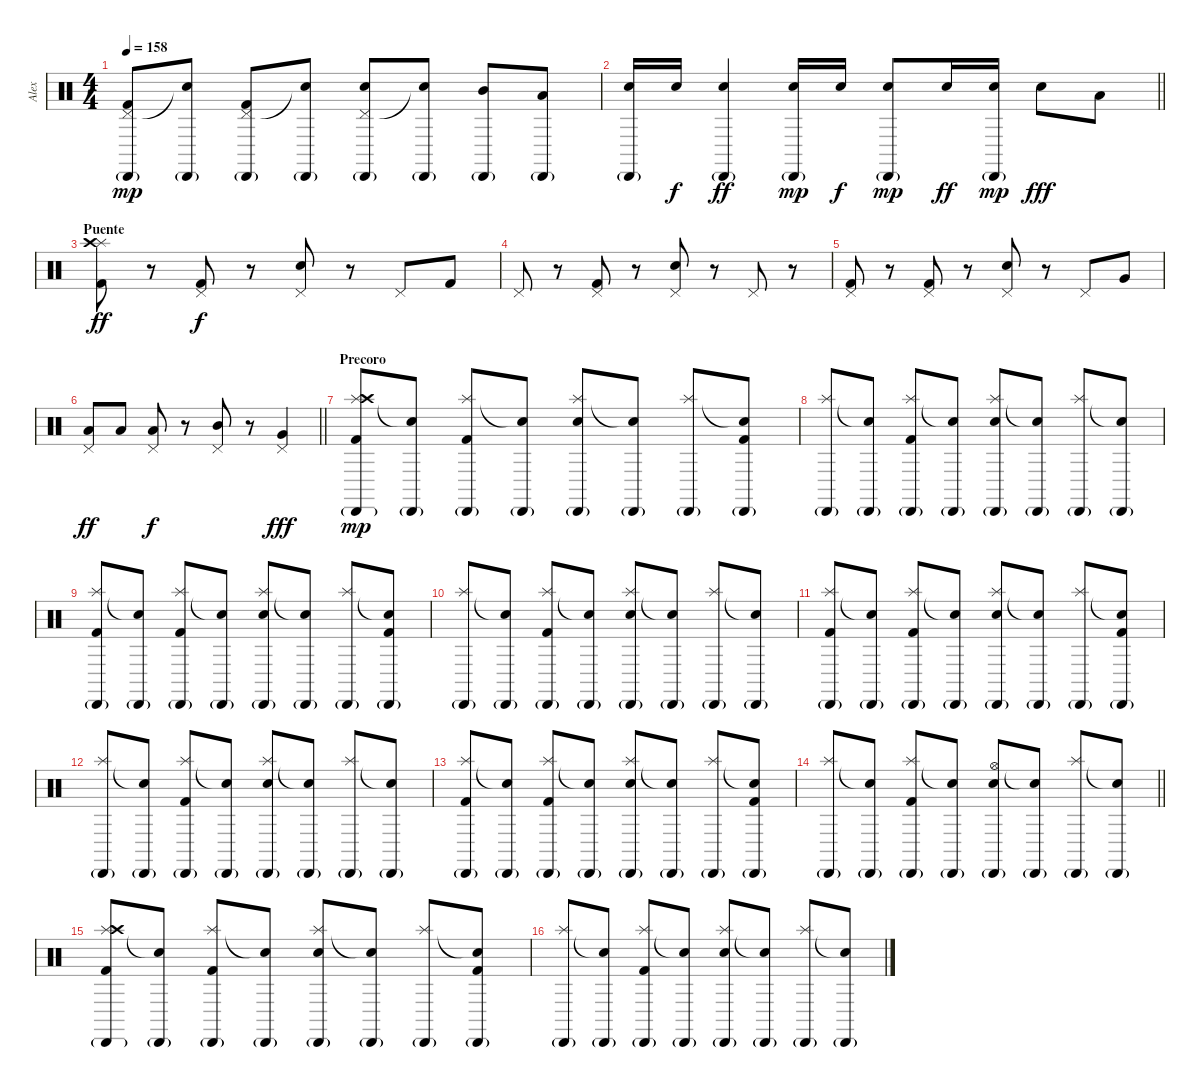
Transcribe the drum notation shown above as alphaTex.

\track ("Alex" "Alex") {instrument percussion}
\staff {score}
\articulation defaults
\ts (4 4)
\tempo 158
\clef neutral
\ks c
("Pedal Hi-Hat (hit)" "Kick (hit) 2" "Cabasa (hit)"{g}).8{dy mp} ("Snare (hit)"{t} "Cabasa (hit)"{g}).8 ("Pedal Hi-Hat (hit)" "Kick (hit) 2" "Cabasa (hit)"{g}).8 ("Snare (hit)"{t} "Cabasa (hit)"{g}).8 ("Pedal Hi-Hat (hit)" "Electric Snare (hit)" "Cabasa (hit)"{g}).8 ("Snare (hit)"{t} "Cabasa (hit)"{g}).8 ("Mid Tom (hit)" "Cabasa (hit)"{g}).8 ("Low Tom (hit)" "Cabasa (hit)"{g}).8 |
\barLineRight lightlight
("Snare (hit) 2" "Cabasa (hit)"{g}).16 "Snare (hit) 2".16{dy f} ("Snare (hit) 2" "Cabasa (hit)"{g}).4{dy ff} ("Snare (hit) 2" "Cabasa (hit)"{g}).16{dy mp} "Snare (hit) 2".16{dy f} ("Snare (hit) 2" "Cabasa (hit)"{g}).8{dy mp} "Snare (hit) 2".16{dy ff} ("Snare (hit) 2" "Cabasa (hit)"{g}).16{dy mp} "Snare (hit) 2".8{dy fff} "Low Tom (hit)".8 |
\section ("" "Puente")
("Splash (hit)" "Kick (hit) 2" "Crash high (hit)").8{dy ff} r.8 ("Pedal Hi-Hat (hit)" "Kick (hit) 2").8{dy f} r.8 ("Pedal Hi-Hat (hit)" "Electric Snare (hit)").8 r.8 "Pedal Hi-Hat (hit)".8 "Kick (hit) 2".8 |
"Pedal Hi-Hat (hit)".8 r.8 ("Pedal Hi-Hat (hit)" "Kick (hit) 2").8 r.8 ("Pedal Hi-Hat (hit)" "Electric Snare (hit)").8 r.8 "Pedal Hi-Hat (hit)".8 r.8 |
("Pedal Hi-Hat (hit)" "Kick (hit) 2").8 r.8 ("Pedal Hi-Hat (hit)" "Kick (hit) 2").8 r.8 ("Pedal Hi-Hat (hit)" "Electric Snare (hit)").8 r.8 "Pedal Hi-Hat (hit)".8 "Very Low Tom (hit)".8 |
\barLineRight lightlight
("Pedal Hi-Hat (hit)" "Low Tom (hit)").8{dy ff} "Low Tom (hit)".8 ("Pedal Hi-Hat (hit)" "Low Tom (hit)").8{dy f} r.8 ("Pedal Hi-Hat (hit)" "Mid Tom (hit)").8 r.8 ("Pedal Hi-Hat (hit)" "Very Low Tom (hit)").4{dy fff} |
\section ("" "Precoro")
("Splash (hit)" "Kick (hit) 2" "Crash high (hit)" "Cabasa (hit)"{g}).8{dy mp} ("Snare (hit)"{t} "Cabasa (hit)"{g}).8 ("Splash (hit)" "Kick (hit) 2" "Cabasa (hit)"{g}).8 ("Snare (hit)"{t} "Cabasa (hit)"{g}).8 ("Splash (hit)" "Electric Snare (hit)" "Cabasa (hit)"{g}).8 ("Snare (hit)"{t} "Cabasa (hit)"{g}).8 ("Splash (hit)" "Cabasa (hit)"{g}).8 ("Snare (hit)"{t} "Kick (hit) 2" "Cabasa (hit)"{g}).8 |
("Splash (hit)" "Cabasa (hit)"{g}).8 ("Snare (hit)"{t} "Cabasa (hit)"{g}).8 ("Splash (hit)" "Kick (hit) 2" "Cabasa (hit)"{g}).8 ("Snare (hit)"{t} "Cabasa (hit)"{g}).8 ("Splash (hit)" "Electric Snare (hit)" "Cabasa (hit)"{g}).8 ("Snare (hit)"{t} "Cabasa (hit)"{g}).8 ("Splash (hit)" "Cabasa (hit)"{g}).8 ("Snare (hit)"{t} "Cabasa (hit)"{g}).8 |
("Splash (hit)" "Kick (hit) 2" "Cabasa (hit)"{g}).8 ("Snare (hit)"{t} "Cabasa (hit)"{g}).8 ("Splash (hit)" "Kick (hit) 2" "Cabasa (hit)"{g}).8 ("Snare (hit)"{t} "Cabasa (hit)"{g}).8 ("Splash (hit)" "Electric Snare (hit)" "Cabasa (hit)"{g}).8 ("Snare (hit)"{t} "Cabasa (hit)"{g}).8 ("Splash (hit)" "Cabasa (hit)"{g}).8 ("Snare (hit)"{t} "Kick (hit) 2" "Cabasa (hit)"{g}).8 |
("Splash (hit)" "Cabasa (hit)"{g}).8 ("Snare (hit)"{t} "Cabasa (hit)"{g}).8 ("Splash (hit)" "Kick (hit) 2" "Cabasa (hit)"{g}).8 ("Snare (hit)"{t} "Cabasa (hit)"{g}).8 ("Splash (hit)" "Electric Snare (hit)" "Cabasa (hit)"{g}).8 ("Snare (hit)"{t} "Cabasa (hit)"{g}).8 ("Splash (hit)" "Cabasa (hit)"{g}).8 ("Snare (hit)"{t} "Cabasa (hit)"{g}).8 |
("Splash (hit)" "Kick (hit) 2" "Cabasa (hit)"{g}).8 ("Snare (hit)"{t} "Cabasa (hit)"{g}).8 ("Splash (hit)" "Kick (hit) 2" "Cabasa (hit)"{g}).8 ("Snare (hit)"{t} "Cabasa (hit)"{g}).8 ("Splash (hit)" "Electric Snare (hit)" "Cabasa (hit)"{g}).8 ("Snare (hit)"{t} "Cabasa (hit)"{g}).8 ("Splash (hit)" "Cabasa (hit)"{g}).8 ("Snare (hit)"{t} "Kick (hit) 2" "Cabasa (hit)"{g}).8 |
("Splash (hit)" "Cabasa (hit)"{g}).8 ("Snare (hit)"{t} "Cabasa (hit)"{g}).8 ("Splash (hit)" "Kick (hit) 2" "Cabasa (hit)"{g}).8 ("Snare (hit)"{t} "Cabasa (hit)"{g}).8 ("Splash (hit)" "Electric Snare (hit)" "Cabasa (hit)"{g}).8 ("Snare (hit)"{t} "Cabasa (hit)"{g}).8 ("Splash (hit)" "Cabasa (hit)"{g}).8 ("Snare (hit)"{t} "Cabasa (hit)"{g}).8 |
("Splash (hit)" "Kick (hit) 2" "Cabasa (hit)"{g}).8 ("Snare (hit)"{t} "Cabasa (hit)"{g}).8 ("Splash (hit)" "Kick (hit) 2" "Cabasa (hit)"{g}).8 ("Snare (hit)"{t} "Cabasa (hit)"{g}).8 ("Splash (hit)" "Electric Snare (hit)" "Cabasa (hit)"{g}).8 ("Snare (hit)"{t} "Cabasa (hit)"{g}).8 ("Splash (hit)" "Cabasa (hit)"{g}).8 ("Snare (hit)"{t} "Kick (hit) 2" "Cabasa (hit)"{g}).8 |
\barLineRight lightlight
("Splash (hit)" "Cabasa (hit)"{g}).8 ("Snare (hit)"{t} "Cabasa (hit)"{g}).8 ("Splash (hit)" "Kick (hit) 2" "Cabasa (hit)"{g}).8 ("Snare (hit)"{t} "Cabasa (hit)"{g}).8 ("Hi-Hat (open)" "Electric Snare (hit)" "Cabasa (hit)"{g}).8 ("Snare (hit)"{t} "Cabasa (hit)"{g}).8 ("Splash (hit)" "Cabasa (hit)"{g}).8 ("Snare (hit)"{t} "Cabasa (hit)"{g}).8 |
("Splash (hit)" "Kick (hit) 2" "Crash high (hit)" "Cabasa (hit)"{g}).8 ("Snare (hit)"{t} "Cabasa (hit)"{g}).8 ("Splash (hit)" "Kick (hit) 2" "Cabasa (hit)"{g}).8 ("Snare (hit)"{t} "Cabasa (hit)"{g}).8 ("Splash (hit)" "Electric Snare (hit)" "Cabasa (hit)"{g}).8 ("Snare (hit)"{t} "Cabasa (hit)"{g}).8 ("Splash (hit)" "Cabasa (hit)"{g}).8 ("Snare (hit)"{t} "Kick (hit) 2" "Cabasa (hit)"{g}).8 |
("Splash (hit)" "Cabasa (hit)"{g}).8 ("Snare (hit)"{t} "Cabasa (hit)"{g}).8 ("Splash (hit)" "Kick (hit) 2" "Cabasa (hit)"{g}).8 ("Snare (hit)"{t} "Cabasa (hit)"{g}).8 ("Splash (hit)" "Electric Snare (hit)" "Cabasa (hit)"{g}).8 ("Snare (hit)"{t} "Cabasa (hit)"{g}).8 ("Splash (hit)" "Cabasa (hit)"{g}).8 ("Snare (hit)"{t} "Cabasa (hit)"{g}).8
